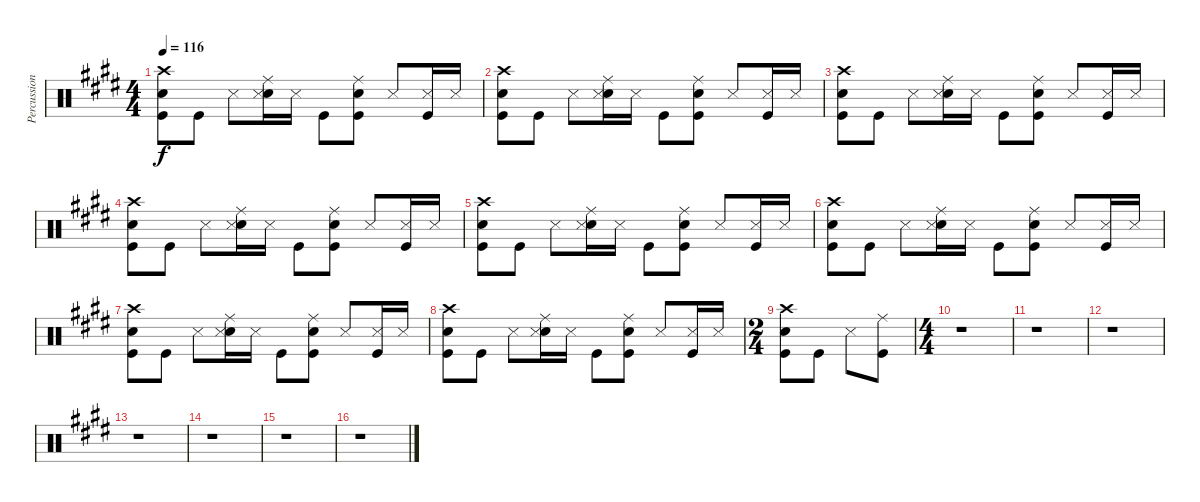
\track ("Percussion" "Percussion") {instrument percussion}
\staff {score}
\articulation defaults
\ts (4 4)
\tempo 116
\clef neutral
\ks e
("Crash high (hit)" "Electric Snare (hit)" "Kick (hit)").8{dy f} "Kick (hit)".8 "Snare (side stick) 3".8 ("Ride (middle)" "Electric Snare (hit)" "Snare (side stick) 3").16 "Snare (side stick) 3".16 "Kick (hit)".8 ("Ride (middle)" "Electric Snare (hit)" "Kick (hit)").8 "Snare (side stick) 3".8 ("Snare (side stick) 3" "Kick (hit)").16 "Snare (side stick) 3".16 |
("Crash high (hit)" "Electric Snare (hit)" "Kick (hit)").8 "Kick (hit)".8 "Snare (side stick) 3".8 ("Ride (middle)" "Electric Snare (hit)" "Snare (side stick) 3").16 "Snare (side stick) 3".16 "Kick (hit)".8 ("Ride (middle)" "Electric Snare (hit)" "Kick (hit)").8 "Snare (side stick) 3".8 ("Snare (side stick) 3" "Kick (hit)").16 "Snare (side stick) 3".16 |
("Crash high (hit)" "Electric Snare (hit)" "Kick (hit)").8 "Kick (hit)".8 "Snare (side stick) 3".8 ("Ride (middle)" "Electric Snare (hit)" "Snare (side stick) 3").16 "Snare (side stick) 3".16 "Kick (hit)".8 ("Ride (middle)" "Electric Snare (hit)" "Kick (hit)").8 "Snare (side stick) 3".8 ("Snare (side stick) 3" "Kick (hit)").16 "Snare (side stick) 3".16 |
("Crash high (hit)" "Electric Snare (hit)" "Kick (hit)").8 "Kick (hit)".8 "Snare (side stick) 3".8 ("Ride (middle)" "Electric Snare (hit)" "Snare (side stick) 3").16 "Snare (side stick) 3".16 "Kick (hit)".8 ("Ride (middle)" "Electric Snare (hit)" "Kick (hit)").8 "Snare (side stick) 3".8 ("Snare (side stick) 3" "Kick (hit)").16 "Snare (side stick) 3".16 |
("Crash high (hit)" "Electric Snare (hit)" "Kick (hit)").8 "Kick (hit)".8 "Snare (side stick) 3".8 ("Ride (middle)" "Electric Snare (hit)" "Snare (side stick) 3").16 "Snare (side stick) 3".16 "Kick (hit)".8 ("Ride (middle)" "Electric Snare (hit)" "Kick (hit)").8 "Snare (side stick) 3".8 ("Snare (side stick) 3" "Kick (hit)").16 "Snare (side stick) 3".16 |
("Crash high (hit)" "Electric Snare (hit)" "Kick (hit)").8 "Kick (hit)".8 "Snare (side stick) 3".8 ("Ride (middle)" "Electric Snare (hit)" "Snare (side stick) 3").16 "Snare (side stick) 3".16 "Kick (hit)".8 ("Ride (middle)" "Electric Snare (hit)" "Kick (hit)").8 "Snare (side stick) 3".8 ("Snare (side stick) 3" "Kick (hit)").16 "Snare (side stick) 3".16 |
("Crash high (hit)" "Electric Snare (hit)" "Kick (hit)").8 "Kick (hit)".8 "Snare (side stick) 3".8 ("Ride (middle)" "Electric Snare (hit)" "Snare (side stick) 3").16 "Snare (side stick) 3".16 "Kick (hit)".8 ("Ride (middle)" "Electric Snare (hit)" "Kick (hit)").8 "Snare (side stick) 3".8 ("Snare (side stick) 3" "Kick (hit)").16 "Snare (side stick) 3".16 |
("Crash high (hit)" "Electric Snare (hit)" "Kick (hit)").8 "Kick (hit)".8 "Snare (side stick) 3".8 ("Ride (middle)" "Electric Snare (hit)" "Snare (side stick) 3").16 "Snare (side stick) 3".16 "Kick (hit)".8 ("Ride (middle)" "Electric Snare (hit)" "Kick (hit)").8 "Snare (side stick) 3".8 ("Snare (side stick) 3" "Kick (hit)").16 "Snare (side stick) 3".16 |
\ts (2 4)
("Crash high (hit)" "Electric Snare (hit)" "Kick (hit)").8 "Kick (hit)".8 "Snare (side stick) 3".8 ("Ride (middle)" "Kick (hit)").8 |
\ts (4 4)
r.1 |
r.1 |
r.1 |
r.1 |
r.1 |
r.1 |
r.1
